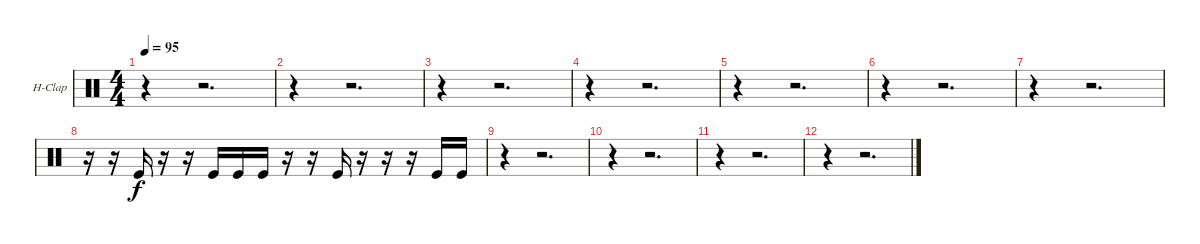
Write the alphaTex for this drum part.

\bracketExtendMode groupsimilarinstruments
\firstSystemTrackNameOrientation horizontal
\otherSystemsTrackNameOrientation horizontal
\track ("Hand Clap" "H-Clap") {instrument percussion}
\staff {score}
\articulation defaults
\ts (4 4)
\tempo 95
\clef neutral
\ks c
r.4{dy f} r.2{d} |
r.4 r.2{d} |
r.4 r.2{d} |
r.4 r.2{d} |
r.4 r.2{d} |
r.4 r.2{d} |
r.4 r.2{d} |
r.16 r.16 "Kick (hit)".16 r.16 r.16 "Kick (hit)".16 "Kick (hit)".16 "Kick (hit)".16 r.16 r.16 "Kick (hit)".16 r.16 r.16 r.16 "Kick (hit)".16 "Kick (hit)".16 |
r.4 r.2{d} |
r.4 r.2{d} |
r.4 r.2{d} |
r.4 r.2{d}
